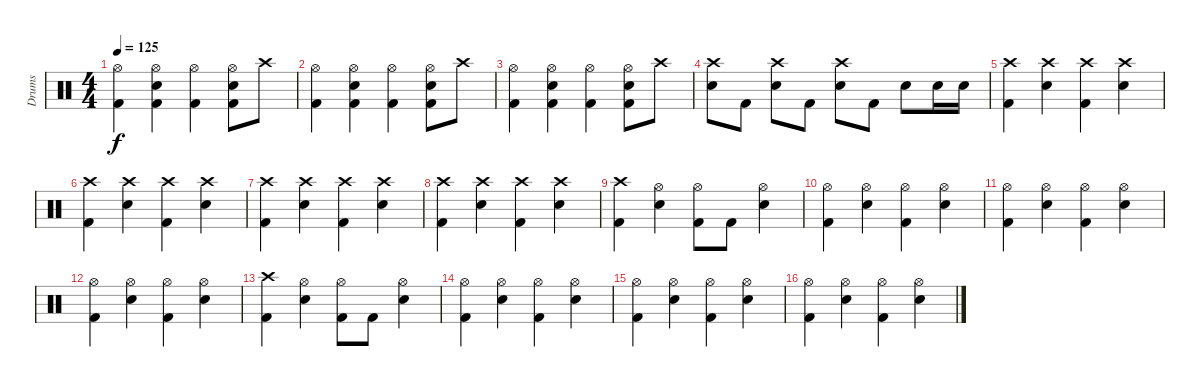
\track ("Drums" "Drums") {instrument percussion}
\staff {score}
\articulation defaults
\ts (4 4)
\tempo 125
\clef neutral
\ks c
("Hi-Hat (open)" "Kick (hit) 2").4{dy f} ("Hi-Hat (open)" "Snare (hit) 2" "Kick (hit) 2").4 ("Hi-Hat (open)" "Kick (hit) 2").4 ("Hi-Hat (open)" "Snare (hit) 2" "Kick (hit) 2").8 "Crash high (hit)".8 |
("Hi-Hat (open)" "Kick (hit) 2").4 ("Hi-Hat (open)" "Snare (hit) 2" "Kick (hit) 2").4 ("Hi-Hat (open)" "Kick (hit) 2").4 ("Hi-Hat (open)" "Snare (hit) 2" "Kick (hit) 2").8 "Crash high (hit)".8 |
("Hi-Hat (open)" "Kick (hit) 2").4 ("Hi-Hat (open)" "Snare (hit) 2" "Kick (hit) 2").4 ("Hi-Hat (open)" "Kick (hit) 2").4 ("Hi-Hat (open)" "Snare (hit) 2" "Kick (hit) 2").8 "Crash high (hit)".8 |
("Crash high (hit)" "Snare (hit) 2").8 "Kick (hit) 2".8 ("Crash high (hit)" "Snare (hit) 2").8 "Kick (hit) 2".8 ("Crash high (hit)" "Snare (hit) 2").8 "Kick (hit) 2".8 "Snare (hit) 2".8 "Snare (hit) 2".16 "Snare (hit) 2".16 |
("Crash high (hit)" "Kick (hit) 2").4 ("Crash high (hit)" "Snare (hit) 2").4 ("Crash high (hit)" "Kick (hit) 2").4 ("Crash high (hit)" "Snare (hit) 2").4 |
("Crash high (hit)" "Kick (hit) 2").4 ("Crash high (hit)" "Snare (hit) 2").4 ("Crash high (hit)" "Kick (hit) 2").4 ("Crash high (hit)" "Snare (hit) 2").4 |
("Crash high (hit)" "Kick (hit) 2").4 ("Crash high (hit)" "Snare (hit) 2").4 ("Crash high (hit)" "Kick (hit) 2").4 ("Crash high (hit)" "Snare (hit) 2").4 |
("Crash high (hit)" "Kick (hit) 2").4 ("Crash high (hit)" "Snare (hit) 2").4 ("Crash high (hit)" "Kick (hit) 2").4 ("Crash high (hit)" "Snare (hit) 2").4 |
("Crash high (hit)" "Kick (hit) 2").4 ("Hi-Hat (open)" "Snare (hit) 2").4 ("Hi-Hat (open)" "Kick (hit) 2").8 "Kick (hit) 2".8 ("Hi-Hat (open)" "Snare (hit) 2").4 |
("Hi-Hat (open)" "Kick (hit) 2").4 ("Hi-Hat (open)" "Snare (hit) 2").4 ("Hi-Hat (open)" "Kick (hit) 2").4 ("Hi-Hat (open)" "Snare (hit) 2").4 |
("Hi-Hat (open)" "Kick (hit) 2").4 ("Hi-Hat (open)" "Snare (hit) 2").4 ("Hi-Hat (open)" "Kick (hit) 2").4 ("Hi-Hat (open)" "Snare (hit) 2").4 |
("Hi-Hat (open)" "Kick (hit) 2").4 ("Hi-Hat (open)" "Snare (hit) 2").4 ("Hi-Hat (open)" "Kick (hit) 2").4 ("Hi-Hat (open)" "Snare (hit) 2").4 |
("Crash high (hit)" "Kick (hit) 2").4 ("Hi-Hat (open)" "Snare (hit) 2").4 ("Hi-Hat (open)" "Kick (hit) 2").8 "Kick (hit) 2".8 ("Hi-Hat (open)" "Snare (hit) 2").4 |
("Hi-Hat (open)" "Kick (hit) 2").4 ("Hi-Hat (open)" "Snare (hit) 2").4 ("Hi-Hat (open)" "Kick (hit) 2").4 ("Hi-Hat (open)" "Snare (hit) 2").4 |
("Hi-Hat (open)" "Kick (hit) 2").4 ("Hi-Hat (open)" "Snare (hit) 2").4 ("Hi-Hat (open)" "Kick (hit) 2").4 ("Hi-Hat (open)" "Snare (hit) 2").4 |
("Hi-Hat (open)" "Kick (hit) 2").4 ("Hi-Hat (open)" "Snare (hit) 2").4 ("Hi-Hat (open)" "Kick (hit) 2").4 ("Hi-Hat (open)" "Snare (hit) 2").4
